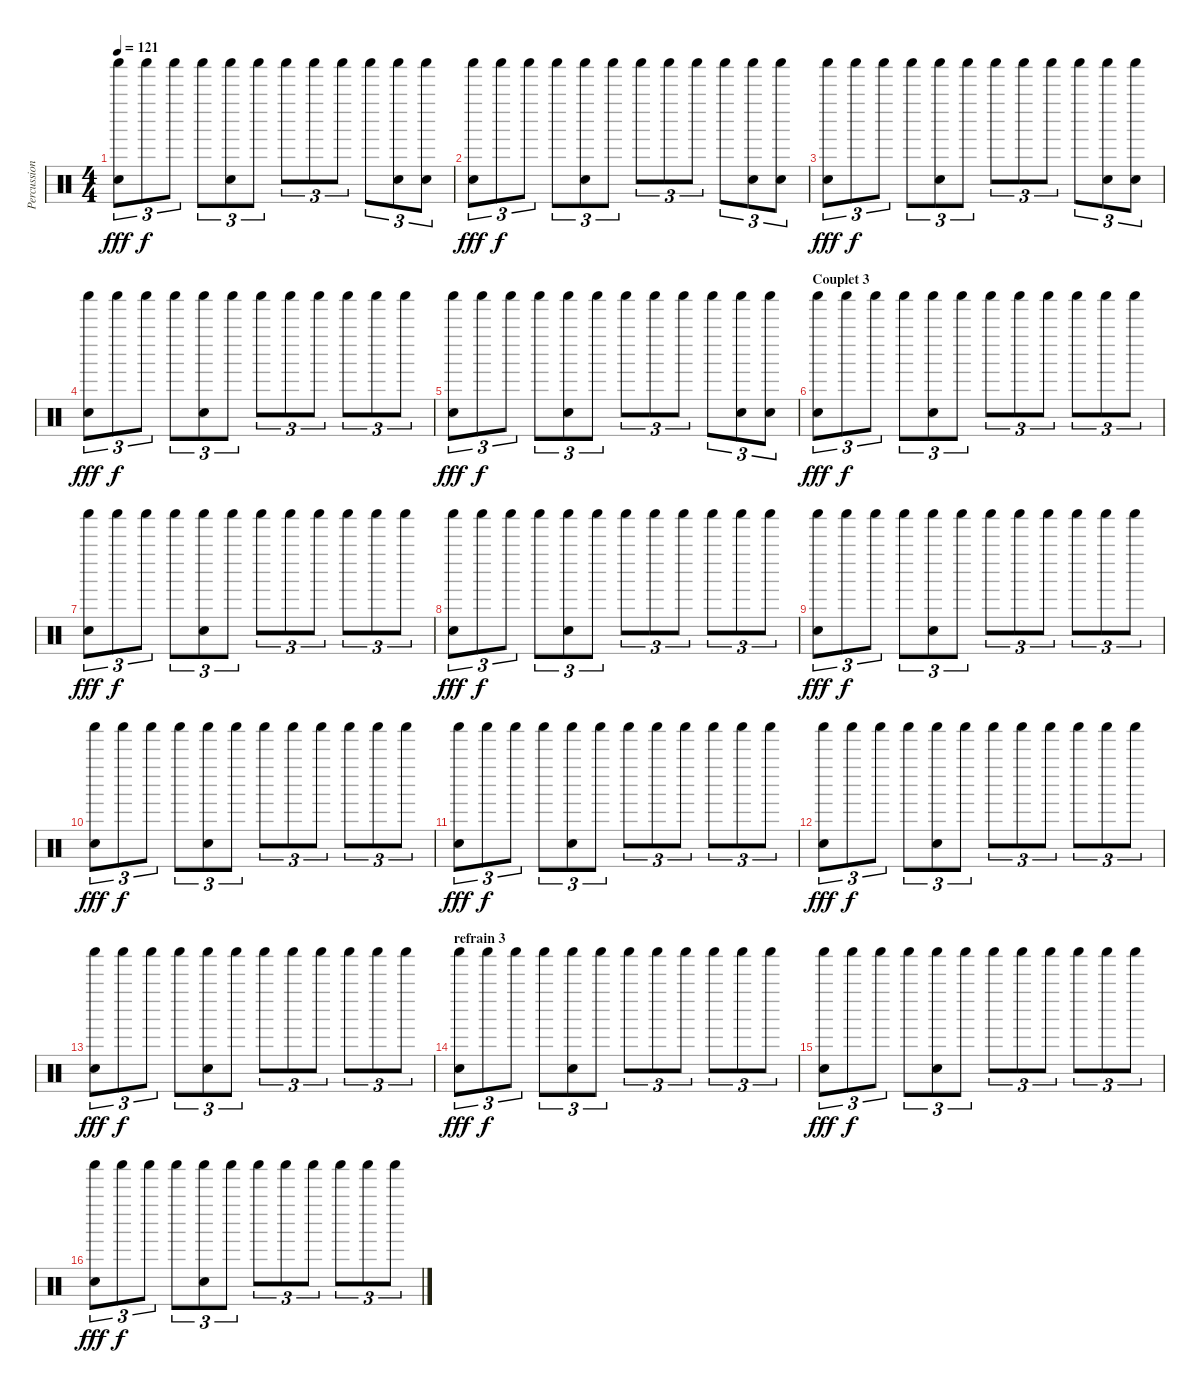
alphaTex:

\track ("Percussions" "Percussion") {instrument percussion}
\staff {score}
\articulation defaults
\ts (4 4)
\tempo 121
\clef neutral
\ks c
("Shaker (hit)" "Electric Snare (hit)").8{tu (3 2) dy fff} "Shaker (hit)".8{tu (3 2) dy f} "Shaker (hit)".8{tu (3 2)} "Shaker (hit)".8{tu (3 2)} ("Shaker (hit)" "Electric Snare (hit)").8{tu (3 2)} "Shaker (hit)".8{tu (3 2)} "Shaker (hit)".8{tu (3 2)} "Shaker (hit)".8{tu (3 2)} "Shaker (hit)".8{tu (3 2)} "Shaker (hit)".8{tu (3 2)} ("Shaker (hit)" "Hand Clap (hit)").8{tu (3 2)} ("Shaker (hit)" "Hand Clap (hit)").8{tu (3 2)} |
("Shaker (hit)" "Electric Snare (hit)").8{tu (3 2) dy fff} "Shaker (hit)".8{tu (3 2) dy f} "Shaker (hit)".8{tu (3 2)} "Shaker (hit)".8{tu (3 2)} ("Shaker (hit)" "Electric Snare (hit)").8{tu (3 2)} "Shaker (hit)".8{tu (3 2)} "Shaker (hit)".8{tu (3 2)} "Shaker (hit)".8{tu (3 2)} "Shaker (hit)".8{tu (3 2)} "Shaker (hit)".8{tu (3 2)} ("Shaker (hit)" "Hand Clap (hit)").8{tu (3 2)} ("Shaker (hit)" "Hand Clap (hit)").8{tu (3 2)} |
("Shaker (hit)" "Electric Snare (hit)").8{tu (3 2) dy fff} "Shaker (hit)".8{tu (3 2) dy f} "Shaker (hit)".8{tu (3 2)} "Shaker (hit)".8{tu (3 2)} ("Shaker (hit)" "Electric Snare (hit)").8{tu (3 2)} "Shaker (hit)".8{tu (3 2)} "Shaker (hit)".8{tu (3 2)} "Shaker (hit)".8{tu (3 2)} "Shaker (hit)".8{tu (3 2)} "Shaker (hit)".8{tu (3 2)} ("Shaker (hit)" "Hand Clap (hit)").8{tu (3 2)} ("Shaker (hit)" "Hand Clap (hit)").8{tu (3 2)} |
("Shaker (hit)" "Electric Snare (hit)").8{tu (3 2) dy fff} "Shaker (hit)".8{tu (3 2) dy f} "Shaker (hit)".8{tu (3 2)} "Shaker (hit)".8{tu (3 2)} ("Shaker (hit)" "Electric Snare (hit)").8{tu (3 2)} "Shaker (hit)".8{tu (3 2)} "Shaker (hit)".8{tu (3 2)} "Shaker (hit)".8{tu (3 2)} "Shaker (hit)".8{tu (3 2)} "Shaker (hit)".8{tu (3 2)} "Shaker (hit)".8{tu (3 2)} "Shaker (hit)".8{tu (3 2)} |
("Shaker (hit)" "Electric Snare (hit)").8{tu (3 2) dy fff} "Shaker (hit)".8{tu (3 2) dy f} "Shaker (hit)".8{tu (3 2)} "Shaker (hit)".8{tu (3 2)} ("Shaker (hit)" "Electric Snare (hit)").8{tu (3 2)} "Shaker (hit)".8{tu (3 2)} "Shaker (hit)".8{tu (3 2)} "Shaker (hit)".8{tu (3 2)} "Shaker (hit)".8{tu (3 2)} "Shaker (hit)".8{tu (3 2)} ("Shaker (hit)" "Hand Clap (hit)").8{tu (3 2)} ("Shaker (hit)" "Hand Clap (hit)").8{tu (3 2)} |
\section ("" "Couplet 3")
("Shaker (hit)" "Electric Snare (hit)").8{tu (3 2) dy fff} "Shaker (hit)".8{tu (3 2) dy f} "Shaker (hit)".8{tu (3 2)} "Shaker (hit)".8{tu (3 2)} ("Shaker (hit)" "Electric Snare (hit)").8{tu (3 2)} "Shaker (hit)".8{tu (3 2)} "Shaker (hit)".8{tu (3 2)} "Shaker (hit)".8{tu (3 2)} "Shaker (hit)".8{tu (3 2)} "Shaker (hit)".8{tu (3 2)} "Shaker (hit)".8{tu (3 2)} "Shaker (hit)".8{tu (3 2)} |
("Shaker (hit)" "Electric Snare (hit)").8{tu (3 2) dy fff} "Shaker (hit)".8{tu (3 2) dy f} "Shaker (hit)".8{tu (3 2)} "Shaker (hit)".8{tu (3 2)} ("Shaker (hit)" "Electric Snare (hit)").8{tu (3 2)} "Shaker (hit)".8{tu (3 2)} "Shaker (hit)".8{tu (3 2)} "Shaker (hit)".8{tu (3 2)} "Shaker (hit)".8{tu (3 2)} "Shaker (hit)".8{tu (3 2)} "Shaker (hit)".8{tu (3 2)} "Shaker (hit)".8{tu (3 2)} |
("Shaker (hit)" "Electric Snare (hit)").8{tu (3 2) dy fff} "Shaker (hit)".8{tu (3 2) dy f} "Shaker (hit)".8{tu (3 2)} "Shaker (hit)".8{tu (3 2)} ("Shaker (hit)" "Electric Snare (hit)").8{tu (3 2)} "Shaker (hit)".8{tu (3 2)} "Shaker (hit)".8{tu (3 2)} "Shaker (hit)".8{tu (3 2)} "Shaker (hit)".8{tu (3 2)} "Shaker (hit)".8{tu (3 2)} "Shaker (hit)".8{tu (3 2)} "Shaker (hit)".8{tu (3 2)} |
("Shaker (hit)" "Electric Snare (hit)").8{tu (3 2) dy fff} "Shaker (hit)".8{tu (3 2) dy f} "Shaker (hit)".8{tu (3 2)} "Shaker (hit)".8{tu (3 2)} ("Shaker (hit)" "Electric Snare (hit)").8{tu (3 2)} "Shaker (hit)".8{tu (3 2)} "Shaker (hit)".8{tu (3 2)} "Shaker (hit)".8{tu (3 2)} "Shaker (hit)".8{tu (3 2)} "Shaker (hit)".8{tu (3 2)} "Shaker (hit)".8{tu (3 2)} "Shaker (hit)".8{tu (3 2)} |
("Shaker (hit)" "Electric Snare (hit)").8{tu (3 2) dy fff} "Shaker (hit)".8{tu (3 2) dy f} "Shaker (hit)".8{tu (3 2)} "Shaker (hit)".8{tu (3 2)} ("Shaker (hit)" "Electric Snare (hit)").8{tu (3 2)} "Shaker (hit)".8{tu (3 2)} "Shaker (hit)".8{tu (3 2)} "Shaker (hit)".8{tu (3 2)} "Shaker (hit)".8{tu (3 2)} "Shaker (hit)".8{tu (3 2)} "Shaker (hit)".8{tu (3 2)} "Shaker (hit)".8{tu (3 2)} |
("Shaker (hit)" "Electric Snare (hit)").8{tu (3 2) dy fff} "Shaker (hit)".8{tu (3 2) dy f} "Shaker (hit)".8{tu (3 2)} "Shaker (hit)".8{tu (3 2)} ("Shaker (hit)" "Electric Snare (hit)").8{tu (3 2)} "Shaker (hit)".8{tu (3 2)} "Shaker (hit)".8{tu (3 2)} "Shaker (hit)".8{tu (3 2)} "Shaker (hit)".8{tu (3 2)} "Shaker (hit)".8{tu (3 2)} "Shaker (hit)".8{tu (3 2)} "Shaker (hit)".8{tu (3 2)} |
("Shaker (hit)" "Electric Snare (hit)").8{tu (3 2) dy fff} "Shaker (hit)".8{tu (3 2) dy f} "Shaker (hit)".8{tu (3 2)} "Shaker (hit)".8{tu (3 2)} ("Shaker (hit)" "Electric Snare (hit)").8{tu (3 2)} "Shaker (hit)".8{tu (3 2)} "Shaker (hit)".8{tu (3 2)} "Shaker (hit)".8{tu (3 2)} "Shaker (hit)".8{tu (3 2)} "Shaker (hit)".8{tu (3 2)} "Shaker (hit)".8{tu (3 2)} "Shaker (hit)".8{tu (3 2)} |
("Shaker (hit)" "Electric Snare (hit)").8{tu (3 2) dy fff} "Shaker (hit)".8{tu (3 2) dy f} "Shaker (hit)".8{tu (3 2)} "Shaker (hit)".8{tu (3 2)} ("Shaker (hit)" "Electric Snare (hit)").8{tu (3 2)} "Shaker (hit)".8{tu (3 2)} "Shaker (hit)".8{tu (3 2)} "Shaker (hit)".8{tu (3 2)} "Shaker (hit)".8{tu (3 2)} "Shaker (hit)".8{tu (3 2)} "Shaker (hit)".8{tu (3 2)} "Shaker (hit)".8{tu (3 2)} |
\section ("" "refrain 3")
("Shaker (hit)" "Electric Snare (hit)").8{tu (3 2) dy fff} "Shaker (hit)".8{tu (3 2) dy f} "Shaker (hit)".8{tu (3 2)} "Shaker (hit)".8{tu (3 2)} ("Shaker (hit)" "Electric Snare (hit)").8{tu (3 2)} "Shaker (hit)".8{tu (3 2)} "Shaker (hit)".8{tu (3 2)} "Shaker (hit)".8{tu (3 2)} "Shaker (hit)".8{tu (3 2)} "Shaker (hit)".8{tu (3 2)} "Shaker (hit)".8{tu (3 2)} "Shaker (hit)".8{tu (3 2)} |
("Shaker (hit)" "Electric Snare (hit)").8{tu (3 2) dy fff} "Shaker (hit)".8{tu (3 2) dy f} "Shaker (hit)".8{tu (3 2)} "Shaker (hit)".8{tu (3 2)} ("Shaker (hit)" "Electric Snare (hit)").8{tu (3 2)} "Shaker (hit)".8{tu (3 2)} "Shaker (hit)".8{tu (3 2)} "Shaker (hit)".8{tu (3 2)} "Shaker (hit)".8{tu (3 2)} "Shaker (hit)".8{tu (3 2)} "Shaker (hit)".8{tu (3 2)} "Shaker (hit)".8{tu (3 2)} |
("Shaker (hit)" "Electric Snare (hit)").8{tu (3 2) dy fff} "Shaker (hit)".8{tu (3 2) dy f} "Shaker (hit)".8{tu (3 2)} "Shaker (hit)".8{tu (3 2)} ("Shaker (hit)" "Electric Snare (hit)").8{tu (3 2)} "Shaker (hit)".8{tu (3 2)} "Shaker (hit)".8{tu (3 2)} "Shaker (hit)".8{tu (3 2)} "Shaker (hit)".8{tu (3 2)} "Shaker (hit)".8{tu (3 2)} "Shaker (hit)".8{tu (3 2)} "Shaker (hit)".8{tu (3 2)}
